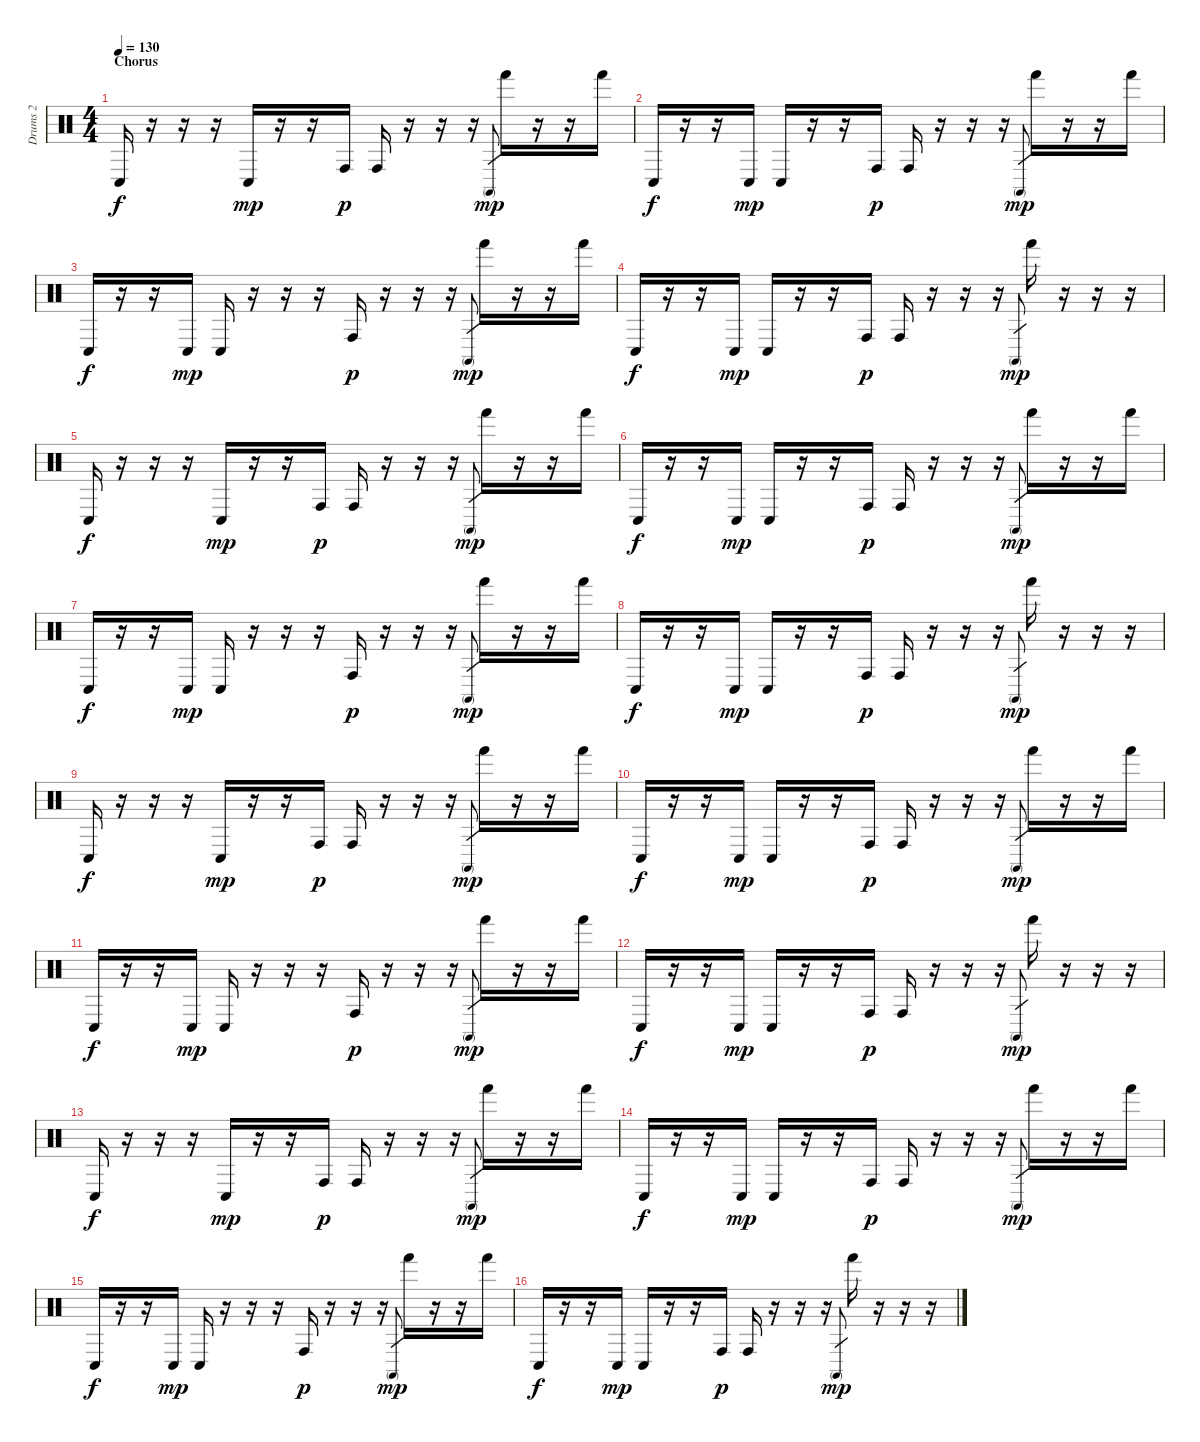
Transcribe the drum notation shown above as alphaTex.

\track ("Drums 2" "Drums 2") {instrument percussion}
\staff {score}
\articulation defaults
\ts (4 4)
\section ("" "Chorus")
\tempo 130
\clef neutral
\ks c "Conga low (hit)".16{dy f}
r.16 r.16 r.16 "Conga low (hit)".16{dy mp} r.16 r.16 "Conga high (hit)".16{dy p} "Conga high (hit)".16 r.16 r.16 r.16 "Conga high (mute)".8{gr dy mp} "Hand (hit)".16 r.16 r.16 "Hand (hit)".16 |
"Conga low (hit)".16{dy f} r.16 r.16 "Conga low (hit)".16{dy mp} "Conga low (hit)".16 r.16 r.16 "Conga high (hit)".16{dy p} "Conga high (hit)".16 r.16 r.16 r.16 "Conga high (mute)".8{gr dy mp} "Hand (hit)".16 r.16 r.16 "Hand (hit)".16 |
"Conga low (hit)".16{dy f} r.16 r.16 "Conga low (hit)".16{dy mp} "Conga low (hit)".16 r.16 r.16 r.16 "Conga high (hit)".16{dy p} r.16 r.16 r.16 "Conga high (mute)".8{gr dy mp} "Hand (hit)".16 r.16 r.16 "Hand (hit)".16 |
"Conga low (hit)".16{dy f} r.16 r.16 "Conga low (hit)".16{dy mp} "Conga low (hit)".16 r.16 r.16 "Conga high (hit)".16{dy p} "Conga high (hit)".16 r.16 r.16 r.16 "Conga high (mute)".8{gr dy mp} "Hand (hit)".16 r.16 r.16 r.16 |
"Conga low (hit)".16{dy f} r.16 r.16 r.16 "Conga low (hit)".16{dy mp} r.16 r.16 "Conga high (hit)".16{dy p} "Conga high (hit)".16 r.16 r.16 r.16 "Conga high (mute)".8{gr dy mp} "Hand (hit)".16 r.16 r.16 "Hand (hit)".16 |
"Conga low (hit)".16{dy f} r.16 r.16 "Conga low (hit)".16{dy mp} "Conga low (hit)".16 r.16 r.16 "Conga high (hit)".16{dy p} "Conga high (hit)".16 r.16 r.16 r.16 "Conga high (mute)".8{gr dy mp} "Hand (hit)".16 r.16 r.16 "Hand (hit)".16 |
"Conga low (hit)".16{dy f} r.16 r.16 "Conga low (hit)".16{dy mp} "Conga low (hit)".16 r.16 r.16 r.16 "Conga high (hit)".16{dy p} r.16 r.16 r.16 "Conga high (mute)".8{gr dy mp} "Hand (hit)".16 r.16 r.16 "Hand (hit)".16 |
"Conga low (hit)".16{dy f} r.16 r.16 "Conga low (hit)".16{dy mp} "Conga low (hit)".16 r.16 r.16 "Conga high (hit)".16{dy p} "Conga high (hit)".16 r.16 r.16 r.16 "Conga high (mute)".8{gr dy mp} "Hand (hit)".16 r.16 r.16 r.16 |
"Conga low (hit)".16{dy f} r.16 r.16 r.16 "Conga low (hit)".16{dy mp} r.16 r.16 "Conga high (hit)".16{dy p} "Conga high (hit)".16 r.16 r.16 r.16 "Conga high (mute)".8{gr dy mp} "Hand (hit)".16 r.16 r.16 "Hand (hit)".16 |
"Conga low (hit)".16{dy f} r.16 r.16 "Conga low (hit)".16{dy mp} "Conga low (hit)".16 r.16 r.16 "Conga high (hit)".16{dy p} "Conga high (hit)".16 r.16 r.16 r.16 "Conga high (mute)".8{gr dy mp} "Hand (hit)".16 r.16 r.16 "Hand (hit)".16 |
"Conga low (hit)".16{dy f} r.16 r.16 "Conga low (hit)".16{dy mp} "Conga low (hit)".16 r.16 r.16 r.16 "Conga high (hit)".16{dy p} r.16 r.16 r.16 "Conga high (mute)".8{gr dy mp} "Hand (hit)".16 r.16 r.16 "Hand (hit)".16 |
"Conga low (hit)".16{dy f} r.16 r.16 "Conga low (hit)".16{dy mp} "Conga low (hit)".16 r.16 r.16 "Conga high (hit)".16{dy p} "Conga high (hit)".16 r.16 r.16 r.16 "Conga high (mute)".8{gr dy mp} "Hand (hit)".16 r.16 r.16 r.16 |
"Conga low (hit)".16{dy f} r.16 r.16 r.16 "Conga low (hit)".16{dy mp} r.16 r.16 "Conga high (hit)".16{dy p} "Conga high (hit)".16 r.16 r.16 r.16 "Conga high (mute)".8{gr dy mp} "Hand (hit)".16 r.16 r.16 "Hand (hit)".16 |
"Conga low (hit)".16{dy f} r.16 r.16 "Conga low (hit)".16{dy mp} "Conga low (hit)".16 r.16 r.16 "Conga high (hit)".16{dy p} "Conga high (hit)".16 r.16 r.16 r.16 "Conga high (mute)".8{gr dy mp} "Hand (hit)".16 r.16 r.16 "Hand (hit)".16 |
"Conga low (hit)".16{dy f} r.16 r.16 "Conga low (hit)".16{dy mp} "Conga low (hit)".16 r.16 r.16 r.16 "Conga high (hit)".16{dy p} r.16 r.16 r.16 "Conga high (mute)".8{gr dy mp} "Hand (hit)".16 r.16 r.16 "Hand (hit)".16 |
"Conga low (hit)".16{dy f} r.16 r.16 "Conga low (hit)".16{dy mp} "Conga low (hit)".16 r.16 r.16 "Conga high (hit)".16{dy p} "Conga high (hit)".16 r.16 r.16 r.16 "Conga high (mute)".8{gr dy mp} "Hand (hit)".16 r.16 r.16 r.16
